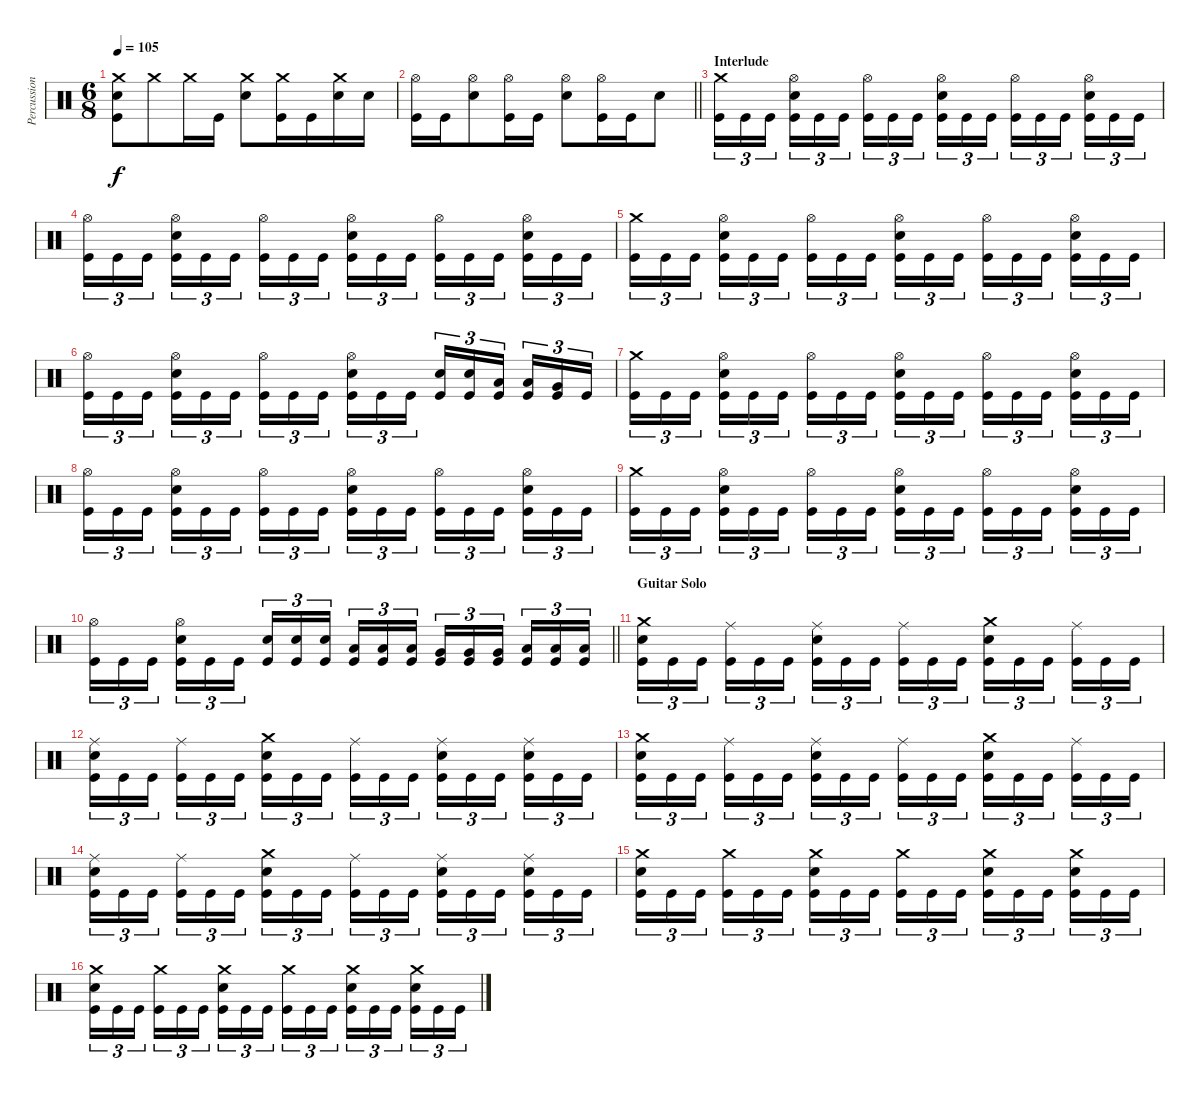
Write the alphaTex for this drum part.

\track ("Percussion" "Percussion") {instrument percussion}
\staff {score}
\articulation defaults
\ts (6 8)
\tempo 105
\clef neutral
\ks c
("Crash medium (hit)" "Electric Snare (hit)" "Kick (hit)").8{dy f} "Crash medium (hit)".8 "Crash medium (hit)".16 "Kick (hit)".16 ("Crash medium (hit)" "Electric Snare (hit)").8 ("Crash medium (hit)" "Kick (hit)").16 "Kick (hit)".16 ("Crash medium (hit)" "Electric Snare (hit)").16 "Electric Snare (hit)".16 |
\barLineRight lightlight
("Hi-Hat (open)" "Kick (hit)").16 "Kick (hit)".16 ("Hi-Hat (open)" "Electric Snare (hit)").8 ("Hi-Hat (open)" "Kick (hit)").16 "Kick (hit)".16 ("Hi-Hat (open)" "Electric Snare (hit)").8 ("Hi-Hat (open)" "Kick (hit)").16 "Kick (hit)".16 "Electric Snare (hit)".8 |
\section ("" "Interlude")
("Crash medium (hit)" "Kick (hit)").16{tu (3 2)} "Kick (hit)".16{tu (3 2)} "Kick (hit)".16{tu (3 2) beam splitsecondary} ("Hi-Hat (open)" "Electric Snare (hit)" "Kick (hit)").16{tu (3 2)} "Kick (hit)".16{tu (3 2)} "Kick (hit)".16{tu (3 2) beam splitsecondary} ("Hi-Hat (open)" "Kick (hit)").16{tu (3 2)} "Kick (hit)".16{tu (3 2)} "Kick (hit)".16{tu (3 2)} ("Hi-Hat (open)" "Electric Snare (hit)" "Kick (hit)").16{tu (3 2)} "Kick (hit)".16{tu (3 2)} "Kick (hit)".16{tu (3 2) beam splitsecondary} ("Hi-Hat (open)" "Kick (hit)").16{tu (3 2)} "Kick (hit)".16{tu (3 2)} "Kick (hit)".16{tu (3 2) beam splitsecondary} ("Hi-Hat (open)" "Electric Snare (hit)" "Kick (hit)").16{tu (3 2)} "Kick (hit)".16{tu (3 2)} "Kick (hit)".16{tu (3 2)} |
("Hi-Hat (open)" "Kick (hit)").16{tu (3 2)} "Kick (hit)".16{tu (3 2)} "Kick (hit)".16{tu (3 2) beam splitsecondary} ("Hi-Hat (open)" "Electric Snare (hit)" "Kick (hit)").16{tu (3 2)} "Kick (hit)".16{tu (3 2)} "Kick (hit)".16{tu (3 2) beam splitsecondary} ("Hi-Hat (open)" "Kick (hit)").16{tu (3 2)} "Kick (hit)".16{tu (3 2)} "Kick (hit)".16{tu (3 2)} ("Hi-Hat (open)" "Electric Snare (hit)" "Kick (hit)").16{tu (3 2)} "Kick (hit)".16{tu (3 2)} "Kick (hit)".16{tu (3 2) beam splitsecondary} ("Hi-Hat (open)" "Kick (hit)").16{tu (3 2)} "Kick (hit)".16{tu (3 2)} "Kick (hit)".16{tu (3 2) beam splitsecondary} ("Hi-Hat (open)" "Electric Snare (hit)" "Kick (hit)").16{tu (3 2)} "Kick (hit)".16{tu (3 2)} "Kick (hit)".16{tu (3 2)} |
("Crash medium (hit)" "Kick (hit)").16{tu (3 2)} "Kick (hit)".16{tu (3 2)} "Kick (hit)".16{tu (3 2) beam splitsecondary} ("Hi-Hat (open)" "Electric Snare (hit)" "Kick (hit)").16{tu (3 2)} "Kick (hit)".16{tu (3 2)} "Kick (hit)".16{tu (3 2) beam splitsecondary} ("Hi-Hat (open)" "Kick (hit)").16{tu (3 2)} "Kick (hit)".16{tu (3 2)} "Kick (hit)".16{tu (3 2)} ("Hi-Hat (open)" "Electric Snare (hit)" "Kick (hit)").16{tu (3 2)} "Kick (hit)".16{tu (3 2)} "Kick (hit)".16{tu (3 2) beam splitsecondary} ("Hi-Hat (open)" "Kick (hit)").16{tu (3 2)} "Kick (hit)".16{tu (3 2)} "Kick (hit)".16{tu (3 2) beam splitsecondary} ("Hi-Hat (open)" "Electric Snare (hit)" "Kick (hit)").16{tu (3 2)} "Kick (hit)".16{tu (3 2)} "Kick (hit)".16{tu (3 2)} |
("Hi-Hat (open)" "Kick (hit)").16{tu (3 2)} "Kick (hit)".16{tu (3 2)} "Kick (hit)".16{tu (3 2) beam splitsecondary} ("Hi-Hat (open)" "Electric Snare (hit)" "Kick (hit)").16{tu (3 2)} "Kick (hit)".16{tu (3 2)} "Kick (hit)".16{tu (3 2) beam splitsecondary} ("Hi-Hat (open)" "Kick (hit)").16{tu (3 2)} "Kick (hit)".16{tu (3 2)} "Kick (hit)".16{tu (3 2)} ("Hi-Hat (open)" "Electric Snare (hit)" "Kick (hit)").16{tu (3 2)} "Kick (hit)".16{tu (3 2)} "Kick (hit)".16{tu (3 2) beam splitsecondary} ("Electric Snare (hit)" "Kick (hit)").16{tu (3 2)} ("Electric Snare (hit)" "Kick (hit)").16{tu (3 2)} ("Low Tom (hit)" "Kick (hit)").16{tu (3 2) beam splitsecondary} ("Low Tom (hit)" "Kick (hit)").16{tu (3 2)} ("Very Low Tom (hit)" "Kick (hit)").16{tu (3 2)} "Kick (hit)".16{tu (3 2)} |
("Crash medium (hit)" "Kick (hit)").16{tu (3 2)} "Kick (hit)".16{tu (3 2)} "Kick (hit)".16{tu (3 2) beam splitsecondary} ("Hi-Hat (open)" "Electric Snare (hit)" "Kick (hit)").16{tu (3 2)} "Kick (hit)".16{tu (3 2)} "Kick (hit)".16{tu (3 2) beam splitsecondary} ("Hi-Hat (open)" "Kick (hit)").16{tu (3 2)} "Kick (hit)".16{tu (3 2)} "Kick (hit)".16{tu (3 2)} ("Hi-Hat (open)" "Electric Snare (hit)" "Kick (hit)").16{tu (3 2)} "Kick (hit)".16{tu (3 2)} "Kick (hit)".16{tu (3 2) beam splitsecondary} ("Hi-Hat (open)" "Kick (hit)").16{tu (3 2)} "Kick (hit)".16{tu (3 2)} "Kick (hit)".16{tu (3 2) beam splitsecondary} ("Hi-Hat (open)" "Electric Snare (hit)" "Kick (hit)").16{tu (3 2)} "Kick (hit)".16{tu (3 2)} "Kick (hit)".16{tu (3 2)} |
("Hi-Hat (open)" "Kick (hit)").16{tu (3 2)} "Kick (hit)".16{tu (3 2)} "Kick (hit)".16{tu (3 2) beam splitsecondary} ("Hi-Hat (open)" "Electric Snare (hit)" "Kick (hit)").16{tu (3 2)} "Kick (hit)".16{tu (3 2)} "Kick (hit)".16{tu (3 2) beam splitsecondary} ("Hi-Hat (open)" "Kick (hit)").16{tu (3 2)} "Kick (hit)".16{tu (3 2)} "Kick (hit)".16{tu (3 2)} ("Hi-Hat (open)" "Electric Snare (hit)" "Kick (hit)").16{tu (3 2)} "Kick (hit)".16{tu (3 2)} "Kick (hit)".16{tu (3 2) beam splitsecondary} ("Hi-Hat (open)" "Kick (hit)").16{tu (3 2)} "Kick (hit)".16{tu (3 2)} "Kick (hit)".16{tu (3 2) beam splitsecondary} ("Hi-Hat (open)" "Electric Snare (hit)" "Kick (hit)").16{tu (3 2)} "Kick (hit)".16{tu (3 2)} "Kick (hit)".16{tu (3 2)} |
("Crash medium (hit)" "Kick (hit)").16{tu (3 2)} "Kick (hit)".16{tu (3 2)} "Kick (hit)".16{tu (3 2) beam splitsecondary} ("Hi-Hat (open)" "Electric Snare (hit)" "Kick (hit)").16{tu (3 2)} "Kick (hit)".16{tu (3 2)} "Kick (hit)".16{tu (3 2) beam splitsecondary} ("Hi-Hat (open)" "Kick (hit)").16{tu (3 2)} "Kick (hit)".16{tu (3 2)} "Kick (hit)".16{tu (3 2)} ("Hi-Hat (open)" "Electric Snare (hit)" "Kick (hit)").16{tu (3 2)} "Kick (hit)".16{tu (3 2)} "Kick (hit)".16{tu (3 2) beam splitsecondary} ("Hi-Hat (open)" "Kick (hit)").16{tu (3 2)} "Kick (hit)".16{tu (3 2)} "Kick (hit)".16{tu (3 2) beam splitsecondary} ("Hi-Hat (open)" "Electric Snare (hit)" "Kick (hit)").16{tu (3 2)} "Kick (hit)".16{tu (3 2)} "Kick (hit)".16{tu (3 2)} |
\barLineRight lightlight
("Hi-Hat (open)" "Kick (hit)").16{tu (3 2)} "Kick (hit)".16{tu (3 2)} "Kick (hit)".16{tu (3 2) beam splitsecondary} ("Hi-Hat (open)" "Electric Snare (hit)" "Kick (hit)").16{tu (3 2)} "Kick (hit)".16{tu (3 2)} "Kick (hit)".16{tu (3 2) beam splitsecondary} ("Electric Snare (hit)" "Kick (hit)").16{tu (3 2)} ("Electric Snare (hit)" "Kick (hit)").16{tu (3 2)} ("Electric Snare (hit)" "Kick (hit)").16{tu (3 2)} ("Low Tom (hit)" "Kick (hit)").16{tu (3 2)} ("Low Tom (hit)" "Kick (hit)").16{tu (3 2)} ("Low Tom (hit)" "Kick (hit)").16{tu (3 2) beam splitsecondary} ("Very Low Tom (hit)" "Kick (hit)").16{tu (3 2)} ("Very Low Tom (hit)" "Kick (hit)").16{tu (3 2)} ("Very Low Tom (hit)" "Kick (hit)").16{tu (3 2) beam splitsecondary} ("Low Floor Tom (hit)" "Kick (hit)").16{tu (3 2)} ("Low Floor Tom (hit)" "Kick (hit)").16{tu (3 2)} ("Low Floor Tom (hit)" "Kick (hit)").16{tu (3 2)} |
\section ("" "Guitar Solo")
("Crash medium (hit)" "Electric Snare (hit)" "Kick (hit)").16{tu (3 2)} "Kick (hit)".16{tu (3 2)} "Kick (hit)".16{tu (3 2) beam splitsecondary} ("Ride (middle)" "Kick (hit)").16{tu (3 2)} "Kick (hit)".16{tu (3 2)} "Kick (hit)".16{tu (3 2) beam splitsecondary} ("Ride (middle)" "Electric Snare (hit)" "Kick (hit)").16{tu (3 2)} "Kick (hit)".16{tu (3 2)} "Kick (hit)".16{tu (3 2)} ("Ride (middle)" "Kick (hit)").16{tu (3 2)} "Kick (hit)".16{tu (3 2)} "Kick (hit)".16{tu (3 2) beam splitsecondary} ("Crash medium (hit)" "Electric Snare (hit)" "Kick (hit)").16{tu (3 2)} "Kick (hit)".16{tu (3 2)} "Kick (hit)".16{tu (3 2) beam splitsecondary} ("Ride (middle)" "Kick (hit)").16{tu (3 2)} "Kick (hit)".16{tu (3 2)} "Kick (hit)".16{tu (3 2)} |
("Ride (middle)" "Electric Snare (hit)" "Kick (hit)").16{tu (3 2)} "Kick (hit)".16{tu (3 2)} "Kick (hit)".16{tu (3 2) beam splitsecondary} ("Ride (middle)" "Kick (hit)").16{tu (3 2)} "Kick (hit)".16{tu (3 2)} "Kick (hit)".16{tu (3 2) beam splitsecondary} ("Crash medium (hit)" "Electric Snare (hit)" "Kick (hit)").16{tu (3 2)} "Kick (hit)".16{tu (3 2)} "Kick (hit)".16{tu (3 2)} ("Ride (middle)" "Kick (hit)").16{tu (3 2)} "Kick (hit)".16{tu (3 2)} "Kick (hit)".16{tu (3 2) beam splitsecondary} ("Ride (middle)" "Electric Snare (hit)" "Kick (hit)").16{tu (3 2)} "Kick (hit)".16{tu (3 2)} "Kick (hit)".16{tu (3 2) beam splitsecondary} ("Ride (middle)" "Electric Snare (hit)" "Kick (hit)").16{tu (3 2)} "Kick (hit)".16{tu (3 2)} "Kick (hit)".16{tu (3 2)} |
("Crash medium (hit)" "Electric Snare (hit)" "Kick (hit)").16{tu (3 2)} "Kick (hit)".16{tu (3 2)} "Kick (hit)".16{tu (3 2) beam splitsecondary} ("Ride (middle)" "Kick (hit)").16{tu (3 2)} "Kick (hit)".16{tu (3 2)} "Kick (hit)".16{tu (3 2) beam splitsecondary} ("Ride (middle)" "Electric Snare (hit)" "Kick (hit)").16{tu (3 2)} "Kick (hit)".16{tu (3 2)} "Kick (hit)".16{tu (3 2)} ("Ride (middle)" "Kick (hit)").16{tu (3 2)} "Kick (hit)".16{tu (3 2)} "Kick (hit)".16{tu (3 2) beam splitsecondary} ("Crash medium (hit)" "Electric Snare (hit)" "Kick (hit)").16{tu (3 2)} "Kick (hit)".16{tu (3 2)} "Kick (hit)".16{tu (3 2) beam splitsecondary} ("Ride (middle)" "Kick (hit)").16{tu (3 2)} "Kick (hit)".16{tu (3 2)} "Kick (hit)".16{tu (3 2)} |
("Ride (middle)" "Electric Snare (hit)" "Kick (hit)").16{tu (3 2)} "Kick (hit)".16{tu (3 2)} "Kick (hit)".16{tu (3 2) beam splitsecondary} ("Ride (middle)" "Kick (hit)").16{tu (3 2)} "Kick (hit)".16{tu (3 2)} "Kick (hit)".16{tu (3 2) beam splitsecondary} ("Crash medium (hit)" "Electric Snare (hit)" "Kick (hit)").16{tu (3 2)} "Kick (hit)".16{tu (3 2)} "Kick (hit)".16{tu (3 2)} ("Ride (middle)" "Kick (hit)").16{tu (3 2)} "Kick (hit)".16{tu (3 2)} "Kick (hit)".16{tu (3 2) beam splitsecondary} ("Ride (middle)" "Electric Snare (hit)" "Kick (hit)").16{tu (3 2)} "Kick (hit)".16{tu (3 2)} "Kick (hit)".16{tu (3 2) beam splitsecondary} ("Ride (middle)" "Electric Snare (hit)" "Kick (hit)").16{tu (3 2)} "Kick (hit)".16{tu (3 2)} "Kick (hit)".16{tu (3 2)} |
("Crash medium (hit)" "Electric Snare (hit)" "Kick (hit)").16{tu (3 2)} "Kick (hit)".16{tu (3 2)} "Kick (hit)".16{tu (3 2) beam splitsecondary} ("Crash medium (hit)" "Kick (hit)").16{tu (3 2)} "Kick (hit)".16{tu (3 2)} "Kick (hit)".16{tu (3 2) beam splitsecondary} ("Crash medium (hit)" "Electric Snare (hit)" "Kick (hit)").16{tu (3 2)} "Kick (hit)".16{tu (3 2)} "Kick (hit)".16{tu (3 2)} ("Crash medium (hit)" "Kick (hit)").16{tu (3 2)} "Kick (hit)".16{tu (3 2)} "Kick (hit)".16{tu (3 2) beam splitsecondary} ("Crash medium (hit)" "Electric Snare (hit)" "Kick (hit)").16{tu (3 2)} "Kick (hit)".16{tu (3 2)} "Kick (hit)".16{tu (3 2) beam splitsecondary} ("Crash medium (hit)" "Electric Snare (hit)" "Kick (hit)").16{tu (3 2)} "Kick (hit)".16{tu (3 2)} "Kick (hit)".16{tu (3 2)} |
("Crash medium (hit)" "Electric Snare (hit)" "Kick (hit)").16{tu (3 2)} "Kick (hit)".16{tu (3 2)} "Kick (hit)".16{tu (3 2) beam splitsecondary} ("Crash medium (hit)" "Kick (hit)").16{tu (3 2)} "Kick (hit)".16{tu (3 2)} "Kick (hit)".16{tu (3 2) beam splitsecondary} ("Crash medium (hit)" "Electric Snare (hit)" "Kick (hit)").16{tu (3 2)} "Kick (hit)".16{tu (3 2)} "Kick (hit)".16{tu (3 2)} ("Crash medium (hit)" "Kick (hit)").16{tu (3 2)} "Kick (hit)".16{tu (3 2)} "Kick (hit)".16{tu (3 2) beam splitsecondary} ("Crash medium (hit)" "Electric Snare (hit)" "Kick (hit)").16{tu (3 2)} "Kick (hit)".16{tu (3 2)} "Kick (hit)".16{tu (3 2) beam splitsecondary} ("Crash medium (hit)" "Electric Snare (hit)" "Kick (hit)").16{tu (3 2)} "Kick (hit)".16{tu (3 2)} "Kick (hit)".16{tu (3 2)}
